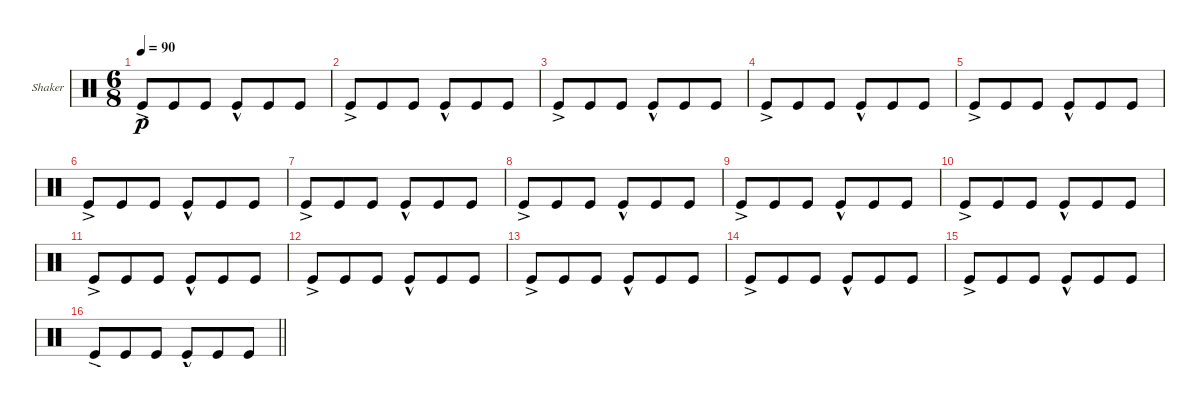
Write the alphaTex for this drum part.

\defaultSystemsLayout 4
\bracketExtendMode groupsimilarinstruments
\firstSystemTrackNameOrientation horizontal
\otherSystemsTrackNameOrientation horizontal
\track ("Shaker" "Shaker") {multiBarRest instrument percussion}
\staff {score}
\articulation defaults
\ts (6 8)
\tempo 90
\clef neutral
\ks c "Kick (hit)"{ac}.8{dy p} "Kick (hit)".8 "Kick (hit)".8 "Kick (hit)"{hac}.8 "Kick (hit)".8 "Kick (hit)".8
|
"Kick (hit)"{ac}.8 "Kick (hit)".8 "Kick (hit)".8 "Kick (hit)"{hac}.8 "Kick (hit)".8 "Kick (hit)".8 |
"Kick (hit)"{ac}.8 "Kick (hit)".8 "Kick (hit)".8 "Kick (hit)"{hac}.8 "Kick (hit)".8 "Kick (hit)".8 |
"Kick (hit)"{ac}.8 "Kick (hit)".8 "Kick (hit)".8 "Kick (hit)"{hac}.8 "Kick (hit)".8 "Kick (hit)".8 |
"Kick (hit)"{ac}.8 "Kick (hit)".8 "Kick (hit)".8 "Kick (hit)"{hac}.8 "Kick (hit)".8 "Kick (hit)".8 |
"Kick (hit)"{ac}.8 "Kick (hit)".8 "Kick (hit)".8 "Kick (hit)"{hac}.8 "Kick (hit)".8 "Kick (hit)".8 |
"Kick (hit)"{ac}.8 "Kick (hit)".8 "Kick (hit)".8 "Kick (hit)"{hac}.8 "Kick (hit)".8 "Kick (hit)".8 |
"Kick (hit)"{ac}.8 "Kick (hit)".8 "Kick (hit)".8 "Kick (hit)"{hac}.8 "Kick (hit)".8 "Kick (hit)".8 |
"Kick (hit)"{ac}.8 "Kick (hit)".8 "Kick (hit)".8 "Kick (hit)"{hac}.8 "Kick (hit)".8 "Kick (hit)".8 |
"Kick (hit)"{ac}.8 "Kick (hit)".8 "Kick (hit)".8 "Kick (hit)"{hac}.8 "Kick (hit)".8 "Kick (hit)".8 |
"Kick (hit)"{ac}.8 "Kick (hit)".8 "Kick (hit)".8 "Kick (hit)"{hac}.8 "Kick (hit)".8 "Kick (hit)".8 |
"Kick (hit)"{ac}.8 "Kick (hit)".8 "Kick (hit)".8 "Kick (hit)"{hac}.8 "Kick (hit)".8 "Kick (hit)".8 |
"Kick (hit)"{ac}.8 "Kick (hit)".8 "Kick (hit)".8 "Kick (hit)"{hac}.8 "Kick (hit)".8 "Kick (hit)".8 |
"Kick (hit)"{ac}.8 "Kick (hit)".8 "Kick (hit)".8 "Kick (hit)"{hac}.8 "Kick (hit)".8 "Kick (hit)".8 |
"Kick (hit)"{ac}.8 "Kick (hit)".8 "Kick (hit)".8 "Kick (hit)"{hac}.8 "Kick (hit)".8 "Kick (hit)".8 |
\barLineRight lightlight "Kick (hit)"{ac}.8 "Kick (hit)".8 "Kick (hit)".8 "Kick (hit)"{hac}.8 "Kick (hit)".8 "Kick (hit)".8
